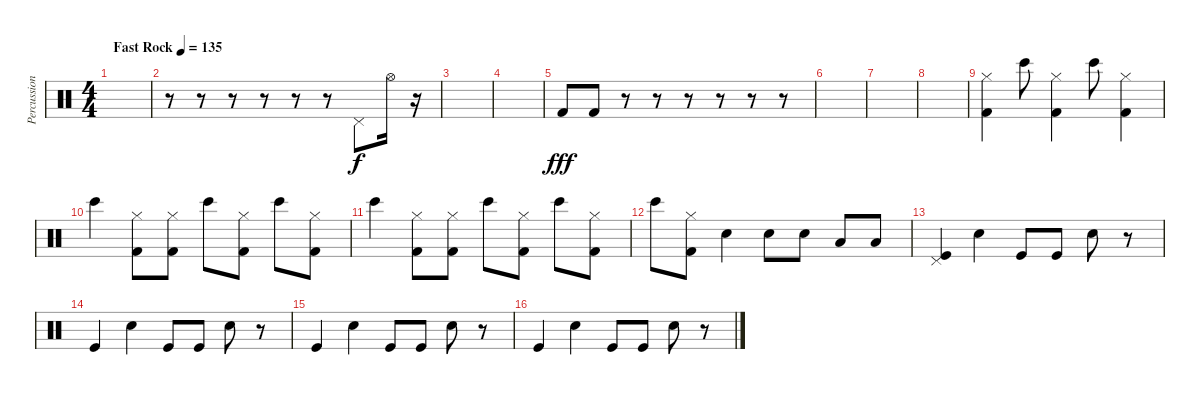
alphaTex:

\track ("Percussion" "Percussion") {instrument percussion}
\staff {score}
\articulation defaults
\ts (4 4)
\tempo (135 "Fast Rock")
\clef neutral
\ks c
|
r.8 r.8 r.8 r.8 r.8 r.8 "Pedal Hi-Hat (hit)".8 "Hi-Hat (open)".16 r.16 |
|
|
"Kick (hit) 2".8{dy fff} "Kick (hit) 2".8 r.8 r.8 r.8 r.8 r.8 r.8 |
|
|
|
("Hi-Hat (closed)" "Kick (hit) 2").4 "Bongo High (hit)".8 ("Hi-Hat (closed)" "Kick (hit) 2").4 "Bongo High (hit)".8 ("Hi-Hat (closed)" "Kick (hit) 2").4 |
"Bongo High (hit)".4 ("Hi-Hat (closed)" "Kick (hit) 2").8 ("Hi-Hat (closed)" "Kick (hit) 2").8 "Bongo High (hit)".8 ("Hi-Hat (closed)" "Kick (hit) 2").8 "Bongo High (hit)".8 ("Hi-Hat (closed)" "Kick (hit) 2").8 |
"Bongo High (hit)".4 ("Hi-Hat (closed)" "Kick (hit) 2").8 ("Hi-Hat (closed)" "Kick (hit) 2").8 "Bongo High (hit)".8 ("Hi-Hat (closed)" "Kick (hit) 2").8 "Bongo High (hit)".8 ("Hi-Hat (closed)" "Kick (hit) 2").8 |
"Bongo High (hit)".8 ("Hi-Hat (closed)" "Kick (hit) 2").8 "Snare (hit) 2".4 "Snare (hit) 2".8 "Snare (hit) 2".8 "Low Tom (hit)".8 "Low Tom (hit)".8 |
("Pedal Hi-Hat (hit)" "Kick (hit)").4 "Snare (hit) 2".4 "Kick (hit)".8 "Kick (hit)".8 "Snare (hit) 2".8 r.8 |
"Kick (hit)".4 "Snare (hit) 2".4 "Kick (hit)".8 "Kick (hit)".8 "Snare (hit) 2".8 r.8 |
"Kick (hit)".4 "Snare (hit) 2".4 "Kick (hit)".8 "Kick (hit)".8 "Snare (hit) 2".8 r.8 |
"Kick (hit)".4 "Snare (hit) 2".4 "Kick (hit)".8 "Kick (hit)".8 "Snare (hit) 2".8 r.8
